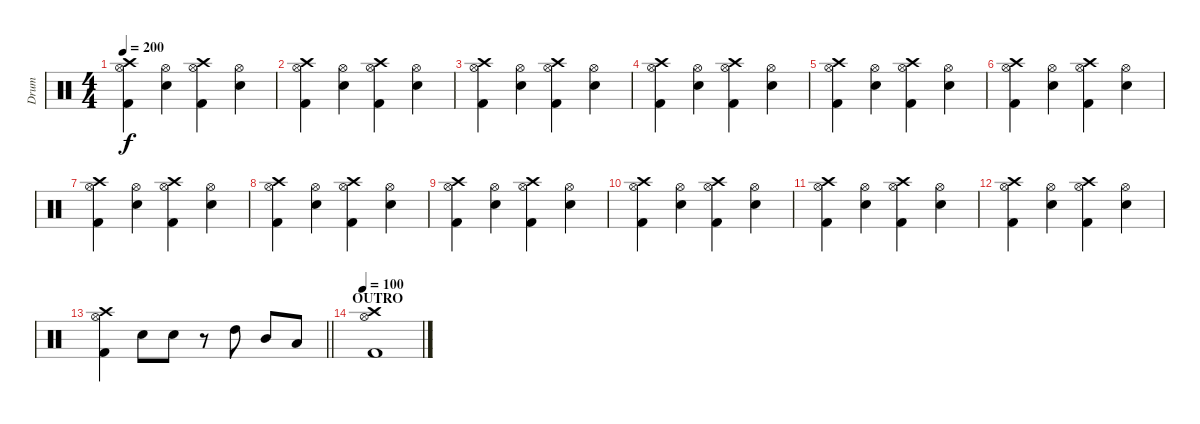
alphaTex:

\track ("Drum" "Drum") {instrument percussion}
\staff {score}
\articulation defaults
\ts (4 4)
\tempo 200
\clef neutral
\ks c
("Crash high (hit)" "Hi-Hat (open)" "Kick (hit) 2").4{dy f} ("Hi-Hat (open)" "Snare (hit) 2").4 ("Crash high (hit)" "Hi-Hat (open)" "Kick (hit) 2").4 ("Hi-Hat (open)" "Snare (hit) 2").4 |
("Crash high (hit)" "Hi-Hat (open)" "Kick (hit) 2").4 ("Hi-Hat (open)" "Snare (hit) 2").4 ("Crash high (hit)" "Hi-Hat (open)" "Kick (hit) 2").4 ("Hi-Hat (open)" "Snare (hit) 2").4 |
("Crash high (hit)" "Hi-Hat (open)" "Kick (hit) 2").4 ("Hi-Hat (open)" "Snare (hit) 2").4 ("Crash high (hit)" "Hi-Hat (open)" "Kick (hit) 2").4 ("Hi-Hat (open)" "Snare (hit) 2").4 |
("Crash high (hit)" "Hi-Hat (open)" "Kick (hit) 2").4 ("Hi-Hat (open)" "Snare (hit) 2").4 ("Crash high (hit)" "Hi-Hat (open)" "Kick (hit) 2").4 ("Hi-Hat (open)" "Snare (hit) 2").4 |
("Crash high (hit)" "Hi-Hat (open)" "Kick (hit) 2").4 ("Hi-Hat (open)" "Snare (hit) 2").4 ("Crash high (hit)" "Hi-Hat (open)" "Kick (hit) 2").4 ("Hi-Hat (open)" "Snare (hit) 2").4 |
("Crash high (hit)" "Hi-Hat (open)" "Kick (hit) 2").4 ("Hi-Hat (open)" "Snare (hit) 2").4 ("Crash high (hit)" "Hi-Hat (open)" "Kick (hit) 2").4 ("Hi-Hat (open)" "Snare (hit) 2").4 |
("Crash high (hit)" "Hi-Hat (open)" "Kick (hit) 2").4 ("Hi-Hat (open)" "Snare (hit) 2").4 ("Crash high (hit)" "Hi-Hat (open)" "Kick (hit) 2").4 ("Hi-Hat (open)" "Snare (hit) 2").4 |
("Crash high (hit)" "Hi-Hat (open)" "Kick (hit) 2").4 ("Hi-Hat (open)" "Snare (hit) 2").4 ("Crash high (hit)" "Hi-Hat (open)" "Kick (hit) 2").4 ("Hi-Hat (open)" "Snare (hit) 2").4 |
("Crash high (hit)" "Hi-Hat (open)" "Kick (hit) 2").4 ("Hi-Hat (open)" "Snare (hit) 2").4 ("Crash high (hit)" "Hi-Hat (open)" "Kick (hit) 2").4 ("Hi-Hat (open)" "Snare (hit) 2").4 |
("Crash high (hit)" "Hi-Hat (open)" "Kick (hit) 2").4 ("Hi-Hat (open)" "Snare (hit) 2").4 ("Crash high (hit)" "Hi-Hat (open)" "Kick (hit) 2").4 ("Hi-Hat (open)" "Snare (hit) 2").4 |
("Crash high (hit)" "Hi-Hat (open)" "Kick (hit) 2").4 ("Hi-Hat (open)" "Snare (hit) 2").4 ("Crash high (hit)" "Hi-Hat (open)" "Kick (hit) 2").4 ("Hi-Hat (open)" "Snare (hit) 2").4 |
("Crash high (hit)" "Hi-Hat (open)" "Kick (hit) 2").4 ("Hi-Hat (open)" "Snare (hit) 2").4 ("Crash high (hit)" "Hi-Hat (open)" "Kick (hit) 2").4 ("Hi-Hat (open)" "Snare (hit) 2").4 |
\barLineRight lightlight
("Crash high (hit)" "Hi-Hat (open)" "Kick (hit) 2").4 "Snare (hit) 2".8 "Snare (hit) 2".8 r.8 "High Tom (hit)".8 "Mid Tom (hit)".8 "Low Tom (hit)".8 |
\section ("" "OUTRO")
\tempo 100
("Crash high (hit)" "Hi-Hat (open)" "Kick (hit) 2").1
